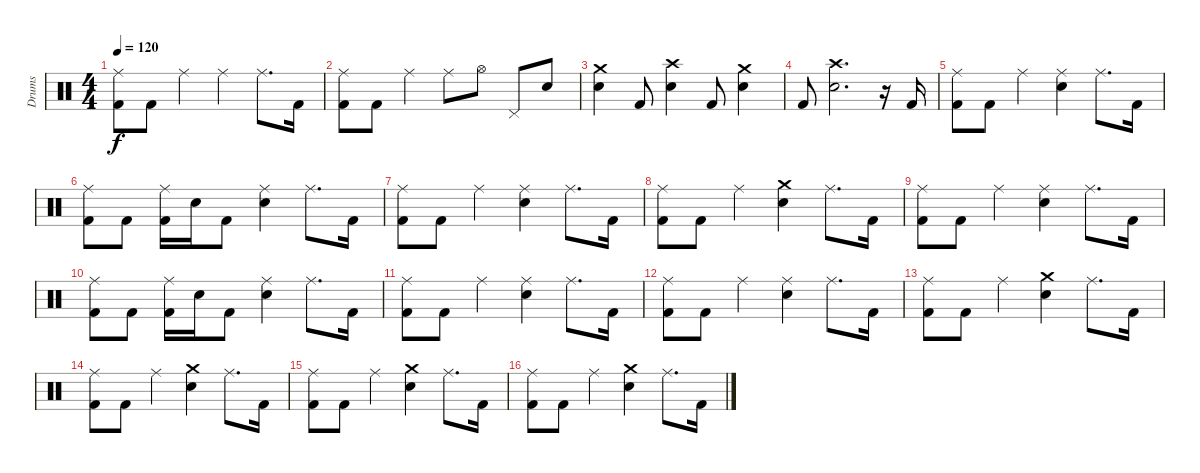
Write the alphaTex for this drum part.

\track ("Drums" "Drums") {instrument percussion}
\staff {score}
\articulation defaults
\ts (4 4)
\tempo 120
\clef neutral
\ks c
("Ride (middle)" "Kick (hit) 2").8{dy f} "Kick (hit) 2".8 "Ride (middle)".4 "Ride (middle)".4 "Ride (middle)".8{d} "Kick (hit) 2".16 |
("Ride (middle)" "Kick (hit) 2").8 "Kick (hit) 2".8 "Ride (middle)".4 "Ride (middle)".8 "Hi-Hat (open)".8 "Pedal Hi-Hat (hit)".8 "Electric Snare (hit)".8 |
("Crash medium (hit)" "Electric Snare (hit)").4 "Kick (hit) 2".8 ("Crash high (hit)" "Electric Snare (hit)").4 "Kick (hit) 2".8 ("Crash medium (hit)" "Electric Snare (hit)").4 |
"Kick (hit) 2".8 ("Crash high (hit)" "Electric Snare (hit)").2{d} r.16 "Kick (hit) 2".16 |
("Ride (middle)" "Kick (hit) 2").8 "Kick (hit) 2".8 "Ride (middle)".4 ("Ride (middle)" "Electric Snare (hit)").4 "Ride (middle)".8{d} "Kick (hit) 2".16 |
("Ride (middle)" "Kick (hit) 2").8 "Kick (hit) 2".8 ("Ride (middle)" "Kick (hit) 2").16 "Electric Snare (hit)".16 "Kick (hit) 2".8 ("Ride (middle)" "Electric Snare (hit)").4 "Ride (middle)".8{d} "Kick (hit) 2".16 |
("Ride (middle)" "Kick (hit) 2").8 "Kick (hit) 2".8 "Ride (middle)".4 ("Ride (middle)" "Electric Snare (hit)").4 "Ride (middle)".8{d} "Kick (hit) 2".16 |
("Ride (middle)" "Kick (hit) 2").8 "Kick (hit) 2".8 "Ride (middle)".4 ("Crash medium (hit)" "Electric Snare (hit)").4 "Ride (middle)".8{d} "Kick (hit) 2".16 |
("Ride (middle)" "Kick (hit) 2").8 "Kick (hit) 2".8 "Ride (middle)".4 ("Ride (middle)" "Electric Snare (hit)").4 "Ride (middle)".8{d} "Kick (hit) 2".16 |
("Ride (middle)" "Kick (hit) 2").8 "Kick (hit) 2".8 ("Ride (middle)" "Kick (hit) 2").16 "Electric Snare (hit)".16 "Kick (hit) 2".8 ("Ride (middle)" "Electric Snare (hit)").4 "Ride (middle)".8{d} "Kick (hit) 2".16 |
("Ride (middle)" "Kick (hit) 2").8 "Kick (hit) 2".8 "Ride (middle)".4 ("Ride (middle)" "Electric Snare (hit)").4 "Ride (middle)".8{d} "Kick (hit) 2".16 |
("Ride (middle)" "Kick (hit) 2").8 "Kick (hit) 2".8 "Ride (middle)".4 ("Ride (middle)" "Electric Snare (hit)").4 "Ride (middle)".8{d} "Kick (hit) 2".16 |
("Ride (middle)" "Kick (hit) 2").8 "Kick (hit) 2".8 "Ride (middle)".4 ("Crash medium (hit)" "Electric Snare (hit)").4 "Ride (middle)".8{d} "Kick (hit) 2".16 |
("Ride (middle)" "Kick (hit) 2").8 "Kick (hit) 2".8 "Ride (middle)".4 ("Crash medium (hit)" "Electric Snare (hit)").4 "Ride (middle)".8{d} "Kick (hit) 2".16 |
("Ride (middle)" "Kick (hit) 2").8 "Kick (hit) 2".8 "Ride (middle)".4 ("Crash medium (hit)" "Electric Snare (hit)").4 "Ride (middle)".8{d} "Kick (hit) 2".16 |
("Ride (middle)" "Kick (hit) 2").8 "Kick (hit) 2".8 "Ride (middle)".4 ("Crash medium (hit)" "Electric Snare (hit)").4 "Ride (middle)".8{d} "Kick (hit) 2".16
